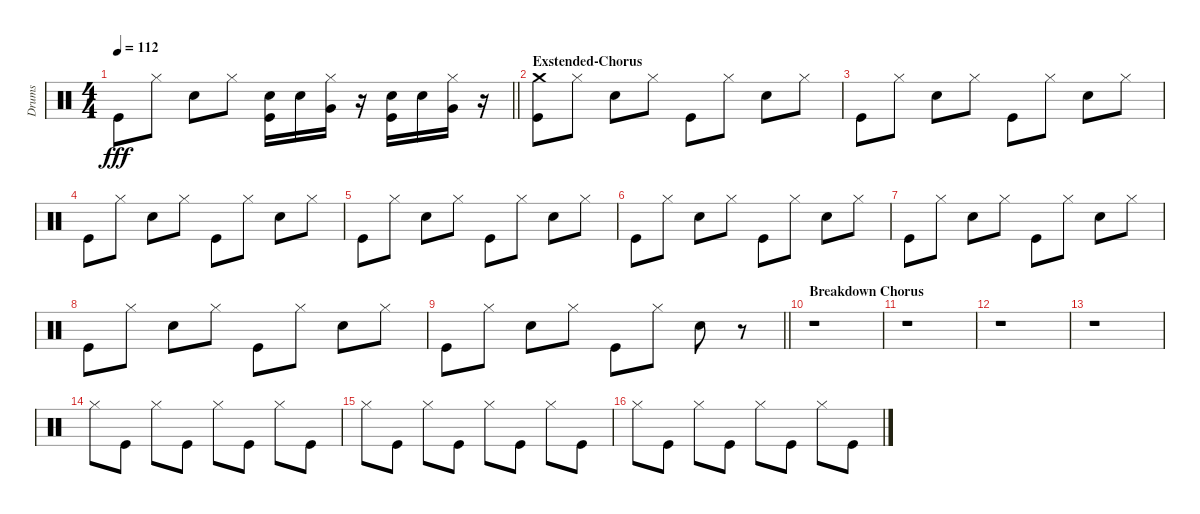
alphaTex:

\track ("Drums" "Drums") {instrument percussion}
\staff {score}
\articulation defaults
\ts (4 4)
\tempo 112
\clef neutral
\barLineRight lightlight
\ks c "Kick (hit)".8{dy fff} "Hi-Hat (closed)".8 "Snare (hit) 2".8 "Hi-Hat (closed)".8
("Snare (hit) 2" "Kick (hit)").16 "Snare (hit) 2".16 ("Hi-Hat (closed)" "Very Low Tom (hit)").16 r.16 ("Snare (hit) 2" "Kick (hit)").16 "Snare (hit) 2".16 ("Hi-Hat (closed)" "Very Low Tom (hit)").16 r.16 |
\section ("" "Exstended-Chorus")
("Crash medium (hit)" "Kick (hit)").8 "Hi-Hat (closed)".8 "Snare (hit) 2".8 "Hi-Hat (closed)".8 "Kick (hit)".8 "Hi-Hat (closed)".8 "Snare (hit) 2".8 "Hi-Hat (closed)".8 |
"Kick (hit)".8 "Hi-Hat (closed)".8 "Snare (hit) 2".8 "Hi-Hat (closed)".8 "Kick (hit)".8 "Hi-Hat (closed)".8 "Snare (hit) 2".8 "Hi-Hat (closed)".8 |
"Kick (hit)".8 "Hi-Hat (closed)".8 "Snare (hit) 2".8 "Hi-Hat (closed)".8 "Kick (hit)".8 "Hi-Hat (closed)".8 "Snare (hit) 2".8 "Hi-Hat (closed)".8 |
"Kick (hit)".8 "Hi-Hat (closed)".8 "Snare (hit) 2".8 "Hi-Hat (closed)".8 "Kick (hit)".8 "Hi-Hat (closed)".8 "Snare (hit) 2".8 "Hi-Hat (closed)".8 |
"Kick (hit)".8 "Hi-Hat (closed)".8 "Snare (hit) 2".8 "Hi-Hat (closed)".8 "Kick (hit)".8 "Hi-Hat (closed)".8 "Snare (hit) 2".8 "Hi-Hat (closed)".8 |
"Kick (hit)".8 "Hi-Hat (closed)".8 "Snare (hit) 2".8 "Hi-Hat (closed)".8 "Kick (hit)".8 "Hi-Hat (closed)".8 "Snare (hit) 2".8 "Hi-Hat (closed)".8 |
"Kick (hit)".8 "Hi-Hat (closed)".8 "Snare (hit) 2".8 "Hi-Hat (closed)".8 "Kick (hit)".8 "Hi-Hat (closed)".8 "Snare (hit) 2".8 "Hi-Hat (closed)".8 |
\barLineRight lightlight "Kick (hit)".8 "Hi-Hat (closed)".8 "Snare (hit) 2".8 "Hi-Hat (closed)".8 "Kick (hit)".8 "Hi-Hat (closed)".8 "Snare (hit) 2".8
r.8 |
\section ("" "Breakdown Chorus")
r.1 |
r.1 |
r.1 |
r.1 |
"Hi-Hat (closed)".8 "Kick (hit)".8 "Hi-Hat (closed)".8 "Kick (hit)".8 "Hi-Hat (closed)".8 "Kick (hit)".8 "Hi-Hat (closed)".8 "Kick (hit)".8 |
"Hi-Hat (closed)".8 "Kick (hit)".8 "Hi-Hat (closed)".8 "Kick (hit)".8 "Hi-Hat (closed)".8 "Kick (hit)".8 "Hi-Hat (closed)".8 "Kick (hit)".8 |
"Hi-Hat (closed)".8 "Kick (hit)".8 "Hi-Hat (closed)".8 "Kick (hit)".8 "Hi-Hat (closed)".8 "Kick (hit)".8 "Hi-Hat (closed)".8 "Kick (hit)".8
